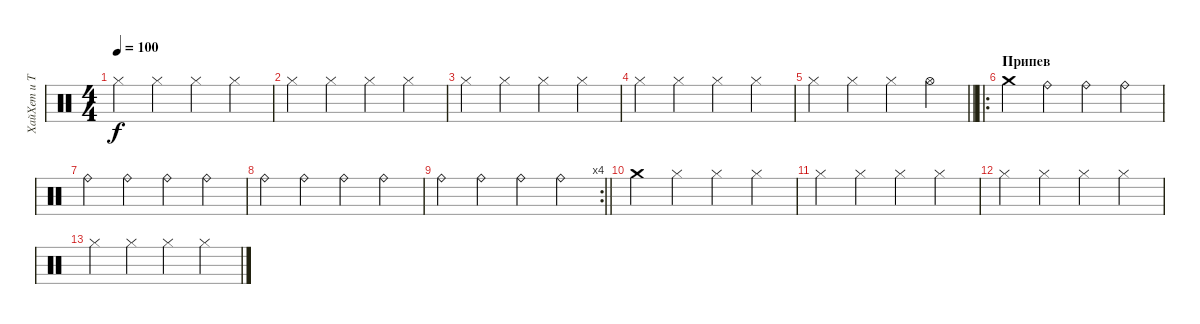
\track ("ХайХет и Тарелка" "ХайХет и Т") {instrument percussion}
\staff {score}
\articulation defaults
\ts (4 4)
\tempo 100
\clef neutral
\ks c "Hi-Hat (closed)".4{dy f} "Hi-Hat (closed)".4 "Hi-Hat (closed)".4 "Hi-Hat (closed)".4
|
"Hi-Hat (closed)".4 "Hi-Hat (closed)".4 "Hi-Hat (closed)".4 "Hi-Hat (closed)".4 |
"Hi-Hat (closed)".4 "Hi-Hat (closed)".4 "Hi-Hat (closed)".4 "Hi-Hat (closed)".4 |
"Hi-Hat (closed)".4 "Hi-Hat (closed)".4 "Hi-Hat (closed)".4 "Hi-Hat (closed)".4 |
\barLineRight lightlight "Hi-Hat (closed)".4 "Hi-Hat (closed)".4 "Hi-Hat (closed)".4 "Hi-Hat (open)".4
|
\ro
\section ("" "Припев")
"Crash medium (hit)".4 "Ride (bell)".4 "Ride (bell)".4 "Ride (bell)".4 |
"Ride (bell)".4 "Ride (bell)".4 "Ride (bell)".4 "Ride (bell)".4 |
"Ride (bell)".4 "Ride (bell)".4 "Ride (bell)".4 "Ride (bell)".4 |
\rc 4
\barLineRight lightlight "Ride (bell)".4 "Ride (bell)".4 "Ride (bell)".4 "Ride (bell)".4
|
"Crash medium (hit)".4 "Hi-Hat (closed)".4 "Hi-Hat (closed)".4 "Hi-Hat (closed)".4 |
"Hi-Hat (closed)".4 "Hi-Hat (closed)".4 "Hi-Hat (closed)".4 "Hi-Hat (closed)".4 |
"Hi-Hat (closed)".4 "Hi-Hat (closed)".4 "Hi-Hat (closed)".4 "Hi-Hat (closed)".4 |
"Hi-Hat (closed)".4 "Hi-Hat (closed)".4 "Hi-Hat (closed)".4 "Hi-Hat (closed)".4
